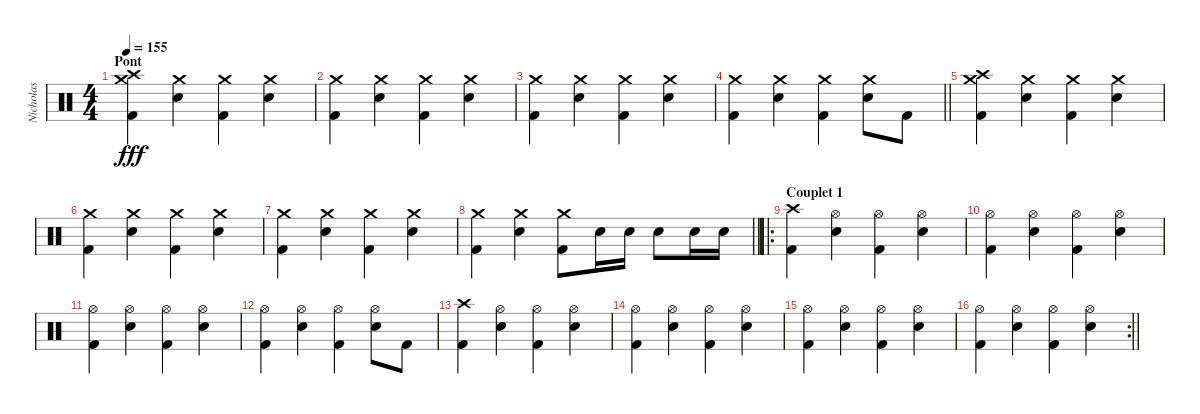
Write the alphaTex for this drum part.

\track ("Nicholas" "Nicholas") {instrument percussion}
\staff {score}
\articulation defaults
\ts (4 4)
\section ("" "Pont")
\tempo 155
\clef neutral
\ks c
("Crash medium (hit)" "Crash high (hit)" "Kick (hit) 2").4{dy fff} ("Crash medium (hit)" "Electric Snare (hit)").4 ("Crash medium (hit)" "Kick (hit) 2").4 ("Crash medium (hit)" "Electric Snare (hit)").4 |
("Crash medium (hit)" "Kick (hit) 2").4 ("Crash medium (hit)" "Electric Snare (hit)").4 ("Crash medium (hit)" "Kick (hit) 2").4 ("Crash medium (hit)" "Electric Snare (hit)").4 |
("Crash medium (hit)" "Kick (hit) 2").4 ("Crash medium (hit)" "Electric Snare (hit)").4 ("Crash medium (hit)" "Kick (hit) 2").4 ("Crash medium (hit)" "Electric Snare (hit)").4 |
\barLineRight lightlight
("Crash medium (hit)" "Kick (hit) 2").4 ("Crash medium (hit)" "Electric Snare (hit)").4 ("Crash medium (hit)" "Kick (hit) 2").4 ("Crash medium (hit)" "Electric Snare (hit)").8 "Kick (hit) 2".8 |
("Crash medium (hit)" "Crash high (hit)" "Kick (hit) 2").4 ("Crash medium (hit)" "Electric Snare (hit)").4 ("Crash medium (hit)" "Kick (hit) 2").4 ("Crash medium (hit)" "Electric Snare (hit)").4 |
("Crash medium (hit)" "Kick (hit) 2").4 ("Crash medium (hit)" "Electric Snare (hit)").4 ("Crash medium (hit)" "Kick (hit) 2").4 ("Crash medium (hit)" "Electric Snare (hit)").4 |
("Crash medium (hit)" "Kick (hit) 2").4 ("Crash medium (hit)" "Electric Snare (hit)").4 ("Crash medium (hit)" "Kick (hit) 2").4 ("Crash medium (hit)" "Electric Snare (hit)").4 |
\barLineRight lightlight
("Crash medium (hit)" "Kick (hit) 2").4 ("Crash medium (hit)" "Electric Snare (hit)").4 ("Crash medium (hit)" "Kick (hit) 2").8 "Electric Snare (hit)".16 "Electric Snare (hit)".16 "Electric Snare (hit)".8 "Electric Snare (hit)".16 "Electric Snare (hit)".16 |
\ro
\section ("" "Couplet 1")
("Crash high (hit)" "Kick (hit) 2").4 ("Hi-Hat (open)" "Electric Snare (hit)").4 ("Hi-Hat (open)" "Kick (hit) 2").4 ("Hi-Hat (open)" "Electric Snare (hit)").4 |
("Hi-Hat (open)" "Kick (hit) 2").4 ("Hi-Hat (open)" "Electric Snare (hit)").4 ("Hi-Hat (open)" "Kick (hit) 2").4 ("Hi-Hat (open)" "Electric Snare (hit)").4 |
("Hi-Hat (open)" "Kick (hit) 2").4 ("Hi-Hat (open)" "Electric Snare (hit)").4 ("Hi-Hat (open)" "Kick (hit) 2").4 ("Hi-Hat (open)" "Electric Snare (hit)").4 |
("Hi-Hat (open)" "Kick (hit) 2").4 ("Hi-Hat (open)" "Electric Snare (hit)").4 ("Hi-Hat (open)" "Kick (hit) 2").4 ("Hi-Hat (open)" "Electric Snare (hit)").8 "Kick (hit) 2".8 |
("Crash high (hit)" "Kick (hit) 2").4 ("Hi-Hat (open)" "Electric Snare (hit)").4 ("Hi-Hat (open)" "Kick (hit) 2").4 ("Hi-Hat (open)" "Electric Snare (hit)").4 |
("Hi-Hat (open)" "Kick (hit) 2").4 ("Hi-Hat (open)" "Electric Snare (hit)").4 ("Hi-Hat (open)" "Kick (hit) 2").4 ("Hi-Hat (open)" "Electric Snare (hit)").4 |
("Hi-Hat (open)" "Kick (hit) 2").4 ("Hi-Hat (open)" "Electric Snare (hit)").4 ("Hi-Hat (open)" "Kick (hit) 2").4 ("Hi-Hat (open)" "Electric Snare (hit)").4 |
\rc 2
\barLineRight lightlight
("Hi-Hat (open)" "Kick (hit) 2").4 ("Hi-Hat (open)" "Electric Snare (hit)").4 ("Hi-Hat (open)" "Kick (hit) 2").4 ("Hi-Hat (open)" "Electric Snare (hit)").4
